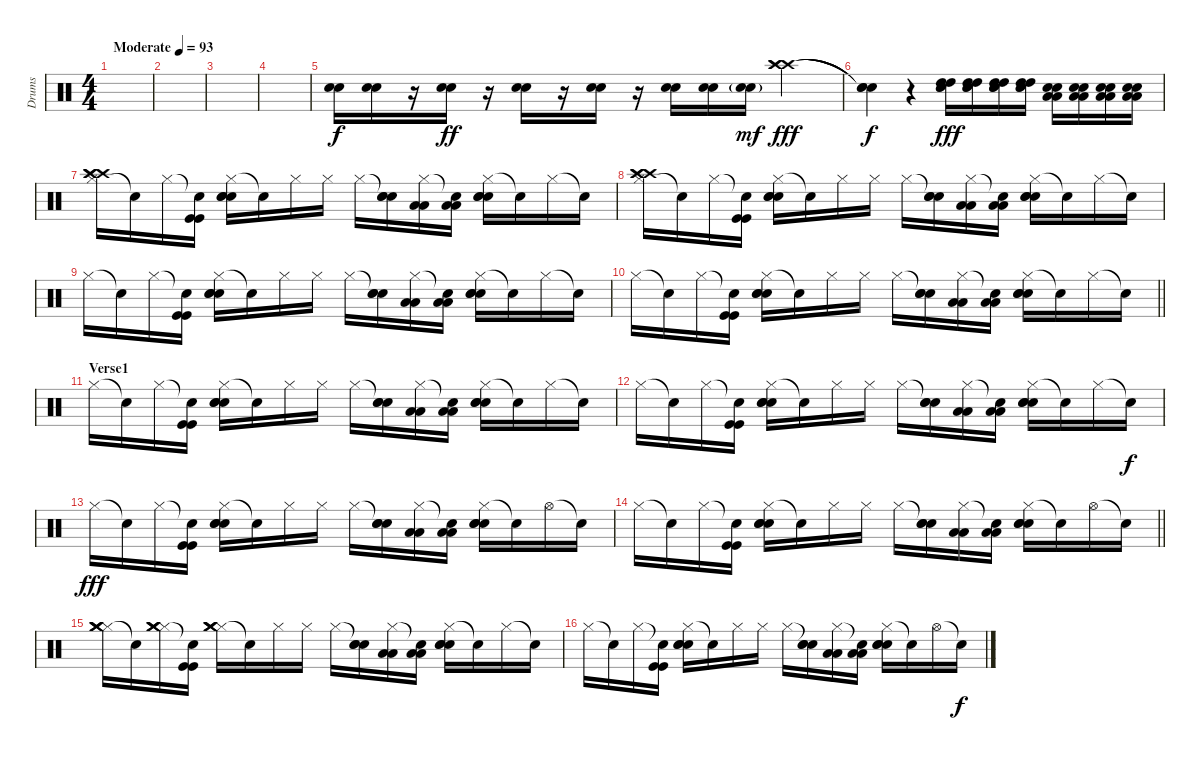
\track ("Drums" "Drums") {instrument percussion}
\staff {score}
\articulation defaults
\ts (4 4)
\tempo (93 "Moderate")
\clef neutral
\ks c
|
|
|
|
("Snare (hit) 2" "Snare (hit) 2").16 ("Snare (hit) 2" "Snare (hit) 2").16{dy f} r.16 ("Snare (hit) 2" "Snare (hit) 2").16{dy ff} r.16 ("Snare (hit) 2" "Snare (hit) 2").16 r.16 ("Snare (hit) 2" "Snare (hit) 2").16 r.16 ("Snare (hit) 2" "Snare (hit) 2").16 ("Snare (hit) 2" "Snare (hit) 2").16 ("Snare (hit) 2"{g} "Snare (hit) 2"{g}).16{dy mf} ("Crash high (hit)" "Crash high (hit)" "Crash high (hit)").4{dy fff} |
("Snare (hit)"{t} "Snare (hit)"{t} "Snare (hit)"{t}).4{dy f} r.4 ("High Tom (hit)" "High Tom (hit)" "Snare (hit) 2" "Snare (hit) 2").16{dy fff} ("High Tom (hit)" "High Tom (hit)" "Snare (hit) 2" "Snare (hit) 2").16 ("High Tom (hit)" "High Tom (hit)" "Snare (hit) 2" "Snare (hit) 2").16 ("High Tom (hit)" "High Tom (hit)" "Snare (hit) 2" "Snare (hit) 2").16 ("Low Tom (hit)" "Low Tom (hit)" "Snare (hit) 2" "Snare (hit) 2").16 ("Low Tom (hit)" "Low Tom (hit)" "Snare (hit) 2" "Snare (hit) 2").16 ("Low Tom (hit)" "Low Tom (hit)" "Snare (hit) 2" "Snare (hit) 2").16 ("Low Tom (hit)" "Low Tom (hit)" "Snare (hit) 2" "Snare (hit) 2").16 |
("Hi-Hat (closed)" "Crash high (hit)" "Crash high (hit)" "Crash high (hit)").16 "Snare (hit)"{t}.16 "Hi-Hat (closed)".16 ("Snare (hit)"{t} "Kick (hit)" "Kick (hit)").16 ("Hi-Hat (closed)" "Snare (hit) 2" "Snare (hit) 2" "Snare (hit) 2").16 "Snare (hit)"{t}.16 "Hi-Hat (closed)".16 "Hi-Hat (closed)".16 "Hi-Hat (closed)".16 ("Snare (hit)"{t} "Snare (hit) 2" "Snare (hit) 2").16 ("Hi-Hat (closed)" "Low Tom (hit)" "Low Tom (hit)").16 ("Snare (hit)"{t} "Low Tom (hit)" "Low Tom (hit)").16 ("Hi-Hat (closed)" "Snare (hit) 2" "Snare (hit) 2" "Snare (hit) 2").16 "Snare (hit)"{t}.16 "Hi-Hat (closed)".16 "Snare (hit)"{t}.16 |
("Hi-Hat (closed)" "Crash high (hit)" "Crash high (hit)" "Crash high (hit)").16 "Snare (hit)"{t}.16 "Hi-Hat (closed)".16 ("Snare (hit)"{t} "Kick (hit)" "Kick (hit)").16 ("Hi-Hat (closed)" "Snare (hit) 2" "Snare (hit) 2" "Snare (hit) 2").16 "Snare (hit)"{t}.16 "Hi-Hat (closed)".16 "Hi-Hat (closed)".16 "Hi-Hat (closed)".16 ("Snare (hit)"{t} "Snare (hit) 2" "Snare (hit) 2").16 ("Hi-Hat (closed)" "Low Tom (hit)" "Low Tom (hit)").16 ("Snare (hit)"{t} "Low Tom (hit)" "Low Tom (hit)").16 ("Hi-Hat (closed)" "Snare (hit) 2" "Snare (hit) 2" "Snare (hit) 2").16 "Snare (hit)"{t}.16 "Hi-Hat (closed)".16 "Snare (hit)"{t}.16 |
"Hi-Hat (closed)".16 "Snare (hit)"{t}.16 "Hi-Hat (closed)".16 ("Snare (hit)"{t} "Kick (hit)" "Kick (hit)").16 ("Hi-Hat (closed)" "Snare (hit) 2" "Snare (hit) 2" "Snare (hit) 2").16 "Snare (hit)"{t}.16 "Hi-Hat (closed)".16 "Hi-Hat (closed)".16 "Hi-Hat (closed)".16 ("Snare (hit)"{t} "Snare (hit) 2" "Snare (hit) 2").16 ("Hi-Hat (closed)" "Low Tom (hit)" "Low Tom (hit)").16 ("Snare (hit)"{t} "Low Tom (hit)" "Low Tom (hit)").16 ("Hi-Hat (closed)" "Snare (hit) 2" "Snare (hit) 2" "Snare (hit) 2").16 "Snare (hit)"{t}.16 "Hi-Hat (closed)".16 "Snare (hit)"{t}.16 |
\barLineRight lightlight "Hi-Hat (closed)".16 "Snare (hit)"{t}.16 "Hi-Hat (closed)".16
("Snare (hit)"{t} "Kick (hit)" "Kick (hit)").16 ("Hi-Hat (closed)" "Snare (hit) 2" "Snare (hit) 2" "Snare (hit) 2").16 "Snare (hit)"{t}.16 "Hi-Hat (closed)".16 "Hi-Hat (closed)".16 "Hi-Hat (closed)".16 ("Snare (hit)"{t} "Snare (hit) 2" "Snare (hit) 2").16 ("Hi-Hat (closed)" "Low Tom (hit)" "Low Tom (hit)").16 ("Snare (hit)"{t} "Low Tom (hit)" "Low Tom (hit)").16 ("Hi-Hat (closed)" "Snare (hit) 2" "Snare (hit) 2" "Snare (hit) 2").16 "Snare (hit)"{t}.16 "Hi-Hat (closed)".16 "Snare (hit)"{t}.16 |
\section ("" "Verse1")
"Hi-Hat (closed)".16 "Snare (hit)"{t}.16 "Hi-Hat (closed)".16 ("Snare (hit)"{t} "Kick (hit)" "Kick (hit)").16 ("Hi-Hat (closed)" "Snare (hit) 2" "Snare (hit) 2" "Snare (hit) 2").16 "Snare (hit)"{t}.16 "Hi-Hat (closed)".16 "Hi-Hat (closed)".16 "Hi-Hat (closed)".16 ("Snare (hit)"{t} "Snare (hit) 2" "Snare (hit) 2").16 ("Hi-Hat (closed)" "Low Tom (hit)" "Low Tom (hit)").16 ("Snare (hit)"{t} "Low Tom (hit)" "Low Tom (hit)").16 ("Hi-Hat (closed)" "Snare (hit) 2" "Snare (hit) 2" "Snare (hit) 2").16 "Snare (hit)"{t}.16 "Hi-Hat (closed)".16 "Snare (hit)"{t}.16 |
"Hi-Hat (closed)".16 "Snare (hit)"{t}.16 "Hi-Hat (closed)".16 ("Snare (hit)"{t} "Kick (hit)" "Kick (hit)").16 ("Hi-Hat (closed)" "Snare (hit) 2" "Snare (hit) 2" "Snare (hit) 2").16 "Snare (hit)"{t}.16 "Hi-Hat (closed)".16 "Hi-Hat (closed)".16 "Hi-Hat (closed)".16 ("Snare (hit)"{t} "Snare (hit) 2" "Snare (hit) 2").16 ("Hi-Hat (closed)" "Low Tom (hit)" "Low Tom (hit)").16 ("Snare (hit)"{t} "Low Tom (hit)" "Low Tom (hit)").16 ("Hi-Hat (closed)" "Snare (hit) 2" "Snare (hit) 2" "Snare (hit) 2").16 "Snare (hit)"{t}.16 "Hi-Hat (closed)".16 "Snare (hit)"{t}.16{dy f} |
"Hi-Hat (closed)".16{dy fff} "Snare (hit)"{t}.16 "Hi-Hat (closed)".16 ("Snare (hit)"{t} "Kick (hit)" "Kick (hit)").16 ("Hi-Hat (closed)" "Snare (hit) 2" "Snare (hit) 2" "Snare (hit) 2").16 "Snare (hit)"{t}.16 "Hi-Hat (closed)".16 "Hi-Hat (closed)".16 "Hi-Hat (closed)".16 ("Snare (hit)"{t} "Snare (hit) 2" "Snare (hit) 2").16 ("Hi-Hat (closed)" "Low Tom (hit)" "Low Tom (hit)").16 ("Snare (hit)"{t} "Low Tom (hit)" "Low Tom (hit)").16 ("Hi-Hat (closed)" "Snare (hit) 2" "Snare (hit) 2" "Snare (hit) 2").16 "Snare (hit)"{t}.16 "Hi-Hat (open)".16 "Snare (hit)"{t}.16 |
\barLineRight lightlight "Hi-Hat (closed)".16 "Snare (hit)"{t}.16 "Hi-Hat (closed)".16
("Snare (hit)"{t} "Kick (hit)" "Kick (hit)").16 ("Hi-Hat (closed)" "Snare (hit) 2" "Snare (hit) 2" "Snare (hit) 2").16 "Snare (hit)"{t}.16 "Hi-Hat (closed)".16 "Hi-Hat (closed)".16 "Hi-Hat (closed)".16 ("Snare (hit)"{t} "Snare (hit) 2" "Snare (hit) 2").16 ("Hi-Hat (closed)" "Low Tom (hit)" "Low Tom (hit)").16 ("Snare (hit)"{t} "Low Tom (hit)" "Low Tom (hit)").16 ("Hi-Hat (closed)" "Snare (hit) 2" "Snare (hit) 2" "Snare (hit) 2").16 "Snare (hit)"{t}.16 "Hi-Hat (open)".16 "Snare (hit)"{t}.16 |
("Hi-Hat (closed)" "Crash medium (hit)" "Crash medium (hit)" "Crash medium (hit)").16 "Snare (hit)"{t}.16 ("Hi-Hat (closed)" "Crash medium (hit)" "Crash medium (hit)" "Crash medium (hit)").16 ("Snare (hit)"{t} "Kick (hit)" "Kick (hit)").16 ("Hi-Hat (closed)" "Crash medium (hit)" "Crash medium (hit)" "Crash medium (hit)").16 "Snare (hit)"{t}.16 "Hi-Hat (closed)".16 "Hi-Hat (closed)".16 "Hi-Hat (closed)".16 ("Snare (hit)"{t} "Snare (hit) 2" "Snare (hit) 2").16 ("Hi-Hat (closed)" "Low Tom (hit)" "Low Tom (hit)").16 ("Snare (hit)"{t} "Low Tom (hit)" "Low Tom (hit)").16 ("Hi-Hat (closed)" "Snare (hit) 2" "Snare (hit) 2" "Snare (hit) 2").16 "Snare (hit)"{t}.16 "Hi-Hat (closed)".16 "Snare (hit)"{t}.16 |
"Hi-Hat (closed)".16 "Snare (hit)"{t}.16 "Hi-Hat (closed)".16 ("Snare (hit)"{t} "Kick (hit)" "Kick (hit)").16 ("Hi-Hat (closed)" "Snare (hit) 2" "Snare (hit) 2" "Snare (hit) 2").16 "Snare (hit)"{t}.16 "Hi-Hat (closed)".16 "Hi-Hat (closed)".16 "Hi-Hat (closed)".16 ("Snare (hit)"{t} "Snare (hit) 2" "Snare (hit) 2").16 ("Hi-Hat (closed)" "Low Tom (hit)" "Low Tom (hit)").16 ("Snare (hit)"{t} "Low Tom (hit)" "Low Tom (hit)").16 ("Hi-Hat (closed)" "Snare (hit) 2" "Snare (hit) 2" "Snare (hit) 2").16 "Snare (hit)"{t}.16 "Hi-Hat (open)".16 "Snare (hit)"{t}.16{dy f}
